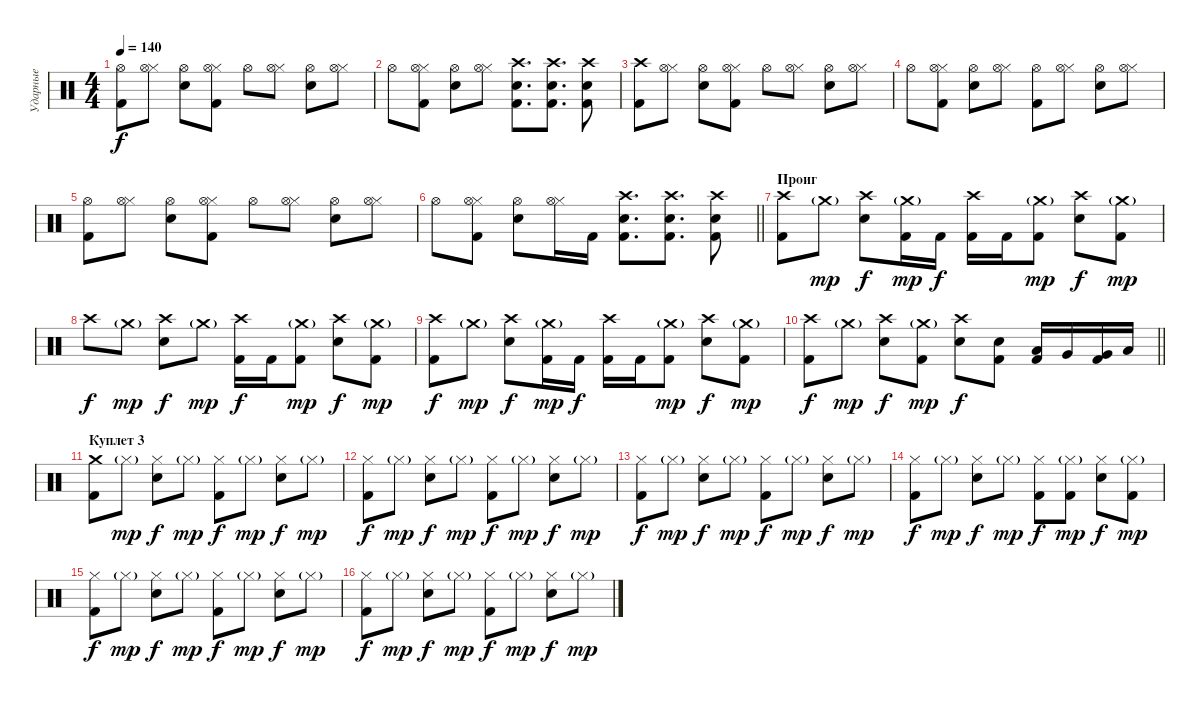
\track ("Ударные" "Ударные") {instrument percussion}
\staff {score}
\articulation defaults
\ts (4 4)
\tempo 140
\clef neutral
\ks c
("Hi-Hat (open)" "Kick (hit) 2").8{dy f} ("Hi-Hat (closed)" "Hi-Hat (open)").8 ("Hi-Hat (open)" "Snare (hit) 2").8 ("Hi-Hat (closed)" "Hi-Hat (open)" "Kick (hit) 2").8 "Hi-Hat (open)".8 ("Hi-Hat (closed)" "Hi-Hat (open)").8 ("Hi-Hat (open)" "Snare (hit) 2").8 ("Hi-Hat (closed)" "Hi-Hat (open)").8 |
"Hi-Hat (open)".8 ("Hi-Hat (closed)" "Hi-Hat (open)" "Kick (hit) 2").8 ("Hi-Hat (open)" "Snare (hit) 2").8 ("Hi-Hat (closed)" "Hi-Hat (open)").8 ("Crash high (hit)" "Snare (hit) 2" "Kick (hit) 2").8{d} ("Crash high (hit)" "Snare (hit) 2" "Kick (hit) 2").8{d} ("Crash high (hit)" "Snare (hit) 2" "Kick (hit) 2").8 |
("Crash high (hit)" "Kick (hit) 2").8 ("Hi-Hat (closed)" "Hi-Hat (open)").8 ("Hi-Hat (open)" "Snare (hit) 2").8 ("Hi-Hat (closed)" "Hi-Hat (open)" "Kick (hit) 2").8 "Hi-Hat (open)".8 ("Hi-Hat (closed)" "Hi-Hat (open)").8 ("Hi-Hat (open)" "Snare (hit) 2").8 ("Hi-Hat (closed)" "Hi-Hat (open)").8 |
"Hi-Hat (open)".8 ("Hi-Hat (closed)" "Hi-Hat (open)" "Kick (hit) 2").8 ("Hi-Hat (open)" "Snare (hit) 2").8 ("Hi-Hat (closed)" "Hi-Hat (open)").8 ("Hi-Hat (open)" "Kick (hit) 2").8 ("Hi-Hat (closed)" "Hi-Hat (open)").8 ("Hi-Hat (open)" "Snare (hit) 2").8 ("Hi-Hat (closed)" "Hi-Hat (open)").8 |
("Hi-Hat (open)" "Kick (hit) 2").8 ("Hi-Hat (closed)" "Hi-Hat (open)").8 ("Hi-Hat (open)" "Snare (hit) 2").8 ("Hi-Hat (closed)" "Hi-Hat (open)" "Kick (hit) 2").8 "Hi-Hat (open)".8 ("Hi-Hat (closed)" "Hi-Hat (open)").8 ("Hi-Hat (open)" "Snare (hit) 2").8 ("Hi-Hat (closed)" "Hi-Hat (open)").8 |
\barLineRight lightlight "Hi-Hat (open)".8
("Hi-Hat (closed)" "Hi-Hat (open)" "Kick (hit) 2").8 ("Hi-Hat (open)" "Snare (hit) 2").8 ("Hi-Hat (closed)" "Hi-Hat (open)").16 "Kick (hit) 2".16 ("Crash high (hit)" "Snare (hit) 2" "Kick (hit) 2").8{d} ("Crash high (hit)" "Snare (hit) 2" "Kick (hit) 2").8{d} ("Crash high (hit)" "Snare (hit) 2" "Kick (hit) 2").8 |
\section ("" "Проиг")
("Crash high (hit)" "Kick (hit) 2").8 "Crash medium (hit)"{g}.8{dy mp} ("Crash high (hit)" "Snare (hit) 2").8{dy f} ("Crash medium (hit)"{g} "Kick (hit) 2").16{dy mp} "Kick (hit) 2".16{dy f} ("Crash high (hit)" "Kick (hit) 2").16 "Kick (hit) 2".16 ("Crash medium (hit)"{g} "Kick (hit) 2").8{dy mp} ("Crash high (hit)" "Snare (hit) 2").8{dy f} ("Crash medium (hit)"{g} "Kick (hit) 2").8{dy mp} |
"Crash high (hit)".8{dy f} "Crash medium (hit)"{g}.8{dy mp} ("Crash high (hit)" "Snare (hit) 2").8{dy f} "Crash medium (hit)"{g}.8{dy mp} ("Crash high (hit)" "Kick (hit) 2").16{dy f} "Kick (hit) 2".16 ("Crash medium (hit)"{g} "Kick (hit) 2").8{dy mp} ("Crash high (hit)" "Snare (hit) 2").8{dy f} ("Crash medium (hit)"{g} "Kick (hit) 2").8{dy mp} |
("Crash high (hit)" "Kick (hit) 2").8{dy f} "Crash medium (hit)"{g}.8{dy mp} ("Crash high (hit)" "Snare (hit) 2").8{dy f} ("Crash medium (hit)"{g} "Kick (hit) 2").16{dy mp} "Kick (hit) 2".16{dy f} ("Crash high (hit)" "Kick (hit) 2").16 "Kick (hit) 2".16 ("Crash medium (hit)"{g} "Kick (hit) 2").8{dy mp} ("Crash high (hit)" "Snare (hit) 2").8{dy f} ("Crash medium (hit)"{g} "Kick (hit) 2").8{dy mp} |
\barLineRight lightlight
("Crash high (hit)" "Kick (hit) 2").8{dy f} "Crash medium (hit)"{g}.8{dy mp} ("Crash high (hit)" "Snare (hit) 2").8{dy f} ("Crash medium (hit)"{g} "Kick (hit) 2").8{dy mp} ("Crash high (hit)" "Snare (hit) 2").8{dy f} ("Snare (hit) 2" "Kick (hit) 2").8 ("Low Floor Tom (hit)" "Kick (hit) 2").16 "Very Low Tom (hit)".16 ("Very Low Tom (hit)" "Kick (hit) 2").16 "Low Tom (hit)".16 |
\section ("" "Куплет 3")
("Crash medium (hit)" "Kick (hit) 2").8 "Hi-Hat (closed)"{g}.8{dy mp} ("Hi-Hat (closed)" "Snare (hit) 2").8{dy f} "Hi-Hat (closed)"{g}.8{dy mp} ("Hi-Hat (closed)" "Kick (hit) 2").8{dy f} "Hi-Hat (closed)"{g}.8{dy mp} ("Hi-Hat (closed)" "Snare (hit) 2").8{dy f} "Hi-Hat (closed)"{g}.8{dy mp} |
("Hi-Hat (closed)" "Kick (hit) 2").8{dy f} "Hi-Hat (closed)"{g}.8{dy mp} ("Hi-Hat (closed)" "Snare (hit) 2").8{dy f} "Hi-Hat (closed)"{g}.8{dy mp} ("Hi-Hat (closed)" "Kick (hit) 2").8{dy f} "Hi-Hat (closed)"{g}.8{dy mp} ("Hi-Hat (closed)" "Snare (hit) 2").8{dy f} "Hi-Hat (closed)"{g}.8{dy mp} |
("Hi-Hat (closed)" "Kick (hit) 2").8{dy f} "Hi-Hat (closed)"{g}.8{dy mp} ("Hi-Hat (closed)" "Snare (hit) 2").8{dy f} "Hi-Hat (closed)"{g}.8{dy mp} ("Hi-Hat (closed)" "Kick (hit) 2").8{dy f} "Hi-Hat (closed)"{g}.8{dy mp} ("Hi-Hat (closed)" "Snare (hit) 2").8{dy f} "Hi-Hat (closed)"{g}.8{dy mp} |
("Hi-Hat (closed)" "Kick (hit) 2").8{dy f} "Hi-Hat (closed)"{g}.8{dy mp} ("Hi-Hat (closed)" "Snare (hit) 2").8{dy f} "Hi-Hat (closed)"{g}.8{dy mp} ("Hi-Hat (closed)" "Kick (hit) 2").8{dy f} ("Hi-Hat (closed)"{g} "Kick (hit) 2").8{dy mp} ("Hi-Hat (closed)" "Snare (hit) 2").8{dy f} ("Hi-Hat (closed)"{g} "Kick (hit) 2").8{dy mp} |
("Hi-Hat (closed)" "Kick (hit) 2").8{dy f} "Hi-Hat (closed)"{g}.8{dy mp} ("Hi-Hat (closed)" "Snare (hit) 2").8{dy f} "Hi-Hat (closed)"{g}.8{dy mp} ("Hi-Hat (closed)" "Kick (hit) 2").8{dy f} "Hi-Hat (closed)"{g}.8{dy mp} ("Hi-Hat (closed)" "Snare (hit) 2").8{dy f} "Hi-Hat (closed)"{g}.8{dy mp} |
("Hi-Hat (closed)" "Kick (hit) 2").8{dy f} "Hi-Hat (closed)"{g}.8{dy mp} ("Hi-Hat (closed)" "Snare (hit) 2").8{dy f} "Hi-Hat (closed)"{g}.8{dy mp} ("Hi-Hat (closed)" "Kick (hit) 2").8{dy f} "Hi-Hat (closed)"{g}.8{dy mp} ("Hi-Hat (closed)" "Snare (hit) 2").8{dy f} "Hi-Hat (closed)"{g}.8{dy mp}
